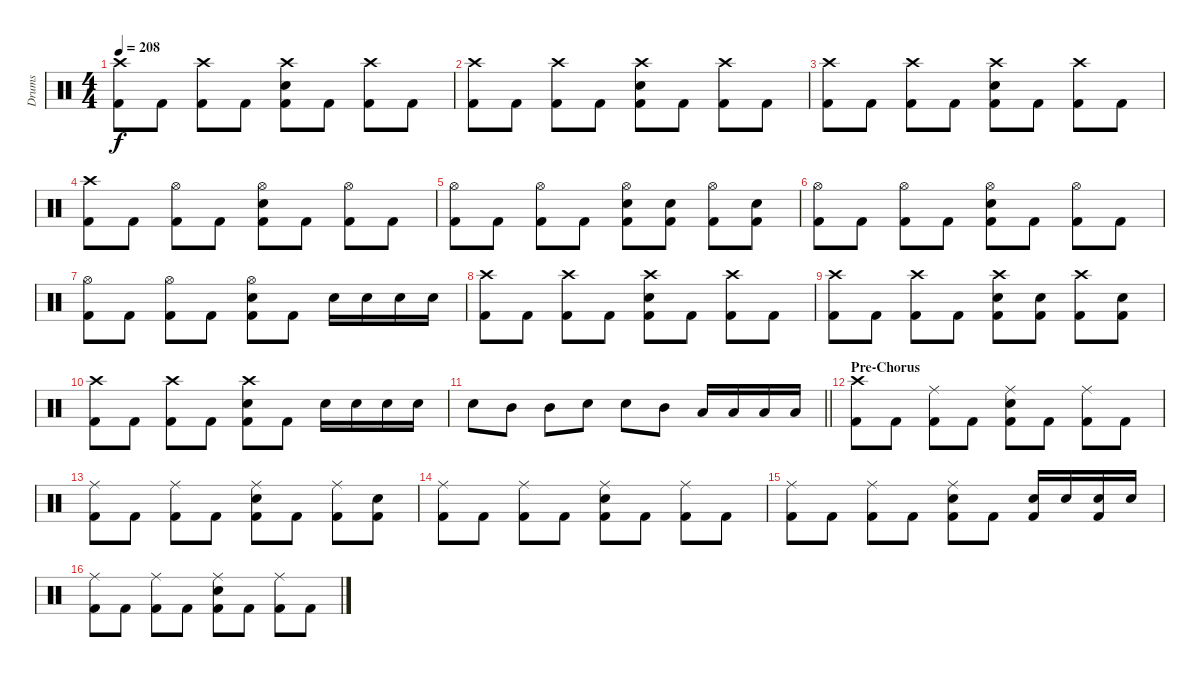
\track ("Drums" "Drums") {instrument percussion}
\staff {score}
\articulation defaults
\ts (4 4)
\tempo 208
\clef neutral
\ks c
("Crash high (hit)" "Kick (hit) 2").8{dy f} "Kick (hit) 2".8 ("Crash high (hit)" "Kick (hit) 2").8 "Kick (hit) 2".8 ("Crash high (hit)" "Snare (hit) 2" "Kick (hit) 2").8 "Kick (hit) 2".8 ("Crash high (hit)" "Kick (hit) 2").8 "Kick (hit) 2".8 |
("Crash high (hit)" "Kick (hit) 2").8 "Kick (hit) 2".8 ("Crash high (hit)" "Kick (hit) 2").8 "Kick (hit) 2".8 ("Crash high (hit)" "Snare (hit) 2" "Kick (hit) 2").8 "Kick (hit) 2".8 ("Crash high (hit)" "Kick (hit) 2").8 "Kick (hit) 2".8 |
("Crash high (hit)" "Kick (hit) 2").8 "Kick (hit) 2".8 ("Crash high (hit)" "Kick (hit) 2").8 "Kick (hit) 2".8 ("Crash high (hit)" "Snare (hit) 2" "Kick (hit) 2").8 "Kick (hit) 2".8 ("Crash high (hit)" "Kick (hit) 2").8 "Kick (hit) 2".8 |
("Crash high (hit)" "Kick (hit) 2").8 "Kick (hit) 2".8 ("Hi-Hat (open)" "Kick (hit) 2").8 "Kick (hit) 2".8 ("Hi-Hat (open)" "Snare (hit) 2" "Kick (hit) 2").8 "Kick (hit) 2".8 ("Hi-Hat (open)" "Kick (hit) 2").8 "Kick (hit) 2".8 |
("Hi-Hat (open)" "Kick (hit) 2").8 "Kick (hit) 2".8 ("Hi-Hat (open)" "Kick (hit) 2").8 "Kick (hit) 2".8 ("Hi-Hat (open)" "Snare (hit) 2" "Kick (hit) 2").8 ("Snare (hit) 2" "Kick (hit) 2").8 ("Hi-Hat (open)" "Kick (hit) 2").8 ("Snare (hit) 2" "Kick (hit) 2").8 |
("Hi-Hat (open)" "Kick (hit) 2").8 "Kick (hit) 2".8 ("Hi-Hat (open)" "Kick (hit) 2").8 "Kick (hit) 2".8 ("Hi-Hat (open)" "Snare (hit) 2" "Kick (hit) 2").8 "Kick (hit) 2".8 ("Hi-Hat (open)" "Kick (hit) 2").8 "Kick (hit) 2".8 |
("Hi-Hat (open)" "Kick (hit) 2").8 "Kick (hit) 2".8 ("Hi-Hat (open)" "Kick (hit) 2").8 "Kick (hit) 2".8 ("Hi-Hat (open)" "Snare (hit) 2" "Kick (hit) 2").8 "Kick (hit) 2".8 "Snare (hit) 2".16 "Snare (hit) 2".16 "Snare (hit) 2".16 "Snare (hit) 2".16 |
("Crash high (hit)" "Kick (hit) 2").8 "Kick (hit) 2".8 ("Crash high (hit)" "Kick (hit) 2").8 "Kick (hit) 2".8 ("Crash high (hit)" "Snare (hit) 2" "Kick (hit) 2").8 "Kick (hit) 2".8 ("Crash high (hit)" "Kick (hit) 2").8 "Kick (hit) 2".8 |
("Crash high (hit)" "Kick (hit) 2").8 "Kick (hit) 2".8 ("Crash high (hit)" "Kick (hit) 2").8 "Kick (hit) 2".8 ("Crash high (hit)" "Snare (hit) 2" "Kick (hit) 2").8 ("Snare (hit) 2" "Kick (hit) 2").8 ("Crash high (hit)" "Kick (hit) 2").8 ("Snare (hit) 2" "Kick (hit) 2").8 |
("Crash high (hit)" "Kick (hit) 2").8 "Kick (hit) 2".8 ("Crash high (hit)" "Kick (hit) 2").8 "Kick (hit) 2".8 ("Crash high (hit)" "Snare (hit) 2" "Kick (hit) 2").8 "Kick (hit) 2".8 "Snare (hit) 2".16 "Snare (hit) 2".16 "Snare (hit) 2".16 "Snare (hit) 2".16 |
\barLineRight lightlight "Snare (hit) 2".8 "Mid Tom (hit)".8 "Mid Tom (hit)".8 "Snare (hit) 2".8 "Snare (hit) 2".8 "Mid Tom (hit)".8 "Low Tom (hit)".16 "Low Tom (hit)".16 "Low Tom (hit)".16 "Low Tom (hit)".16
|
\section ("" "Pre-Chorus")
("Crash high (hit)" "Kick (hit) 2").8 "Kick (hit) 2".8 ("Ride (middle)" "Kick (hit) 2").8 "Kick (hit) 2".8 ("Ride (middle)" "Snare (hit) 2" "Kick (hit) 2").8 "Kick (hit) 2".8 ("Ride (middle)" "Kick (hit) 2").8 "Kick (hit) 2".8 |
("Ride (middle)" "Kick (hit) 2").8 "Kick (hit) 2".8 ("Ride (middle)" "Kick (hit) 2").8 "Kick (hit) 2".8 ("Ride (middle)" "Snare (hit) 2" "Kick (hit) 2").8 "Kick (hit) 2".8 ("Ride (middle)" "Kick (hit) 2").8 ("Snare (hit) 2" "Kick (hit) 2").8 |
("Ride (middle)" "Kick (hit) 2").8 "Kick (hit) 2".8 ("Ride (middle)" "Kick (hit) 2").8 "Kick (hit) 2".8 ("Ride (middle)" "Snare (hit) 2" "Kick (hit) 2").8 "Kick (hit) 2".8 ("Ride (middle)" "Kick (hit) 2").8 "Kick (hit) 2".8 |
("Ride (middle)" "Kick (hit) 2").8 "Kick (hit) 2".8 ("Ride (middle)" "Kick (hit) 2").8 "Kick (hit) 2".8 ("Ride (middle)" "Snare (hit) 2" "Kick (hit) 2").8 "Kick (hit) 2".8 ("Snare (hit) 2" "Kick (hit) 2").16 "Snare (hit) 2".16 ("Snare (hit) 2" "Kick (hit) 2").16 "Snare (hit) 2".16 |
("Ride (middle)" "Kick (hit) 2").8 "Kick (hit) 2".8 ("Ride (middle)" "Kick (hit) 2").8 "Kick (hit) 2".8 ("Ride (middle)" "Snare (hit) 2" "Kick (hit) 2").8 "Kick (hit) 2".8 ("Ride (middle)" "Kick (hit) 2").8 "Kick (hit) 2".8
